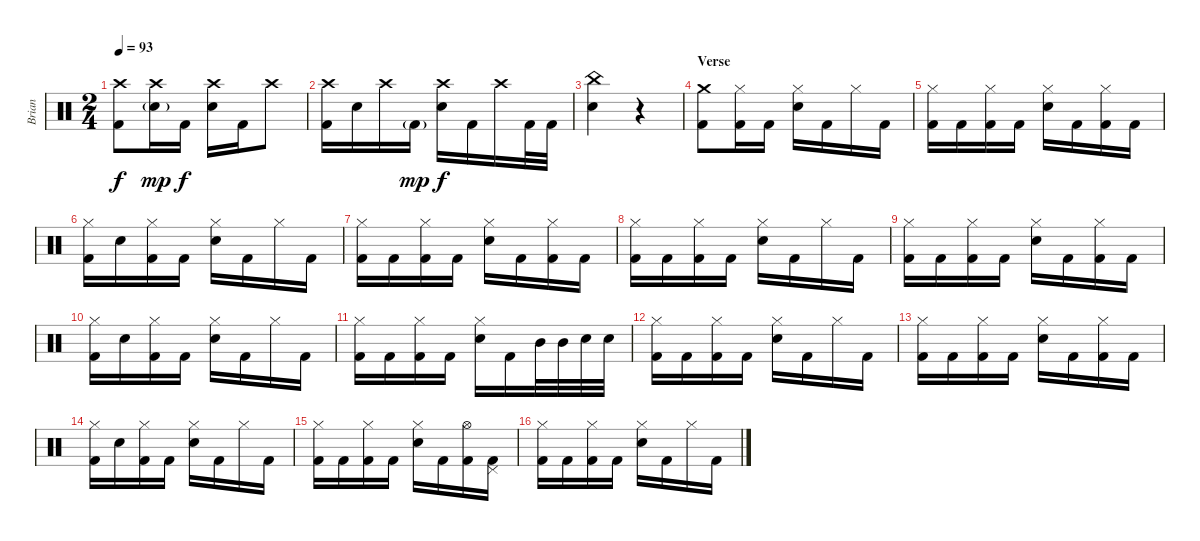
\track ("Brian" "Brian") {instrument percussion}
\staff {score}
\articulation defaults
\ts (2 4)
\tempo 93
\clef neutral
\ks c
("Crash high (hit)" "Kick (hit) 2").8{dy f} ("Crash high (hit)" "Electric Snare (hit)"{g}).16{dy mp} "Kick (hit) 2".16{dy f} ("Crash high (hit)" "Electric Snare (hit)").16 "Kick (hit) 2".16 "Crash high (hit)".8 |
("Crash high (hit)" "Kick (hit) 2").16 "Electric Snare (hit)".16 "Crash high (hit)".16 "Kick (hit) 2"{g}.16{dy mp} ("Crash high (hit)" "Electric Snare (hit)").16{dy f} "Kick (hit) 2".16 "Crash high (hit)".16 "Kick (hit) 2".32 "Kick (hit) 2".32 |
("China (hit)" "Electric Snare (hit)").4 r.4 |
\section ("" "Verse")
("Crash medium (hit)" "Kick (hit) 2").8 ("Hi-Hat (closed)" "Kick (hit) 2").16 "Kick (hit) 2".16 ("Hi-Hat (closed)" "Electric Snare (hit)").16 "Kick (hit) 2".16 "Hi-Hat (closed)".16 "Kick (hit) 2".16 |
("Hi-Hat (closed)" "Kick (hit) 2").16 "Kick (hit) 2".16 ("Hi-Hat (closed)" "Kick (hit) 2").16 "Kick (hit) 2".16 ("Hi-Hat (closed)" "Electric Snare (hit)").16 "Kick (hit) 2".16 ("Hi-Hat (closed)" "Kick (hit) 2").16 "Kick (hit) 2".16 |
("Hi-Hat (closed)" "Kick (hit) 2").16 "Electric Snare (hit)".16 ("Hi-Hat (closed)" "Kick (hit) 2").16 "Kick (hit) 2".16 ("Hi-Hat (closed)" "Electric Snare (hit)").16 "Kick (hit) 2".16 "Hi-Hat (closed)".16 "Kick (hit) 2".16 |
("Hi-Hat (closed)" "Kick (hit) 2").16 "Kick (hit) 2".16 ("Hi-Hat (closed)" "Kick (hit) 2").16 "Kick (hit) 2".16 ("Hi-Hat (closed)" "Electric Snare (hit)").16 "Kick (hit) 2".16 ("Hi-Hat (closed)" "Kick (hit) 2").16 "Kick (hit) 2".16 |
("Hi-Hat (closed)" "Kick (hit) 2").16 "Kick (hit) 2".16 ("Hi-Hat (closed)" "Kick (hit) 2").16 "Kick (hit) 2".16 ("Hi-Hat (closed)" "Electric Snare (hit)").16 "Kick (hit) 2".16 "Hi-Hat (closed)".16 "Kick (hit) 2".16 |
("Hi-Hat (closed)" "Kick (hit) 2").16 "Kick (hit) 2".16 ("Hi-Hat (closed)" "Kick (hit) 2").16 "Kick (hit) 2".16 ("Hi-Hat (closed)" "Electric Snare (hit)").16 "Kick (hit) 2".16 ("Hi-Hat (closed)" "Kick (hit) 2").16 "Kick (hit) 2".16 |
("Hi-Hat (closed)" "Kick (hit) 2").16 "Electric Snare (hit)".16 ("Hi-Hat (closed)" "Kick (hit) 2").16 "Kick (hit) 2".16 ("Hi-Hat (closed)" "Electric Snare (hit)").16 "Kick (hit) 2".16 "Hi-Hat (closed)".16 "Kick (hit) 2".16 |
("Hi-Hat (closed)" "Kick (hit) 2").16 "Kick (hit) 2".16 ("Hi-Hat (closed)" "Kick (hit) 2").16 "Kick (hit) 2".16 ("Hi-Hat (closed)" "Electric Snare (hit)").16 "Kick (hit) 2".16 "Mid Tom (hit)".32 "Mid Tom (hit)".32 "Electric Snare (hit)".32 "Electric Snare (hit)".32 |
("Hi-Hat (closed)" "Kick (hit) 2").16 "Kick (hit) 2".16 ("Hi-Hat (closed)" "Kick (hit) 2").16 "Kick (hit) 2".16 ("Hi-Hat (closed)" "Electric Snare (hit)").16 "Kick (hit) 2".16 "Hi-Hat (closed)".16 "Kick (hit) 2".16 |
("Hi-Hat (closed)" "Kick (hit) 2").16 "Kick (hit) 2".16 ("Hi-Hat (closed)" "Kick (hit) 2").16 "Kick (hit) 2".16 ("Hi-Hat (closed)" "Electric Snare (hit)").16 "Kick (hit) 2".16 ("Hi-Hat (closed)" "Kick (hit) 2").16 "Kick (hit) 2".16 |
("Hi-Hat (closed)" "Kick (hit) 2").16 "Electric Snare (hit)".16 ("Hi-Hat (closed)" "Kick (hit) 2").16 "Kick (hit) 2".16 ("Hi-Hat (closed)" "Electric Snare (hit)").16 "Kick (hit) 2".16 "Hi-Hat (closed)".16 "Kick (hit) 2".16 |
("Hi-Hat (closed)" "Kick (hit) 2").16 "Kick (hit) 2".16 ("Hi-Hat (closed)" "Kick (hit) 2").16 "Kick (hit) 2".16 ("Hi-Hat (closed)" "Electric Snare (hit)").16 "Kick (hit) 2".16 ("Hi-Hat (open)" "Kick (hit) 2").16 ("Pedal Hi-Hat (hit)" "Kick (hit) 2").16 |
("Hi-Hat (closed)" "Kick (hit) 2").16 "Kick (hit) 2".16 ("Hi-Hat (closed)" "Kick (hit) 2").16 "Kick (hit) 2".16 ("Hi-Hat (closed)" "Electric Snare (hit)").16 "Kick (hit) 2".16 "Hi-Hat (closed)".16 "Kick (hit) 2".16
